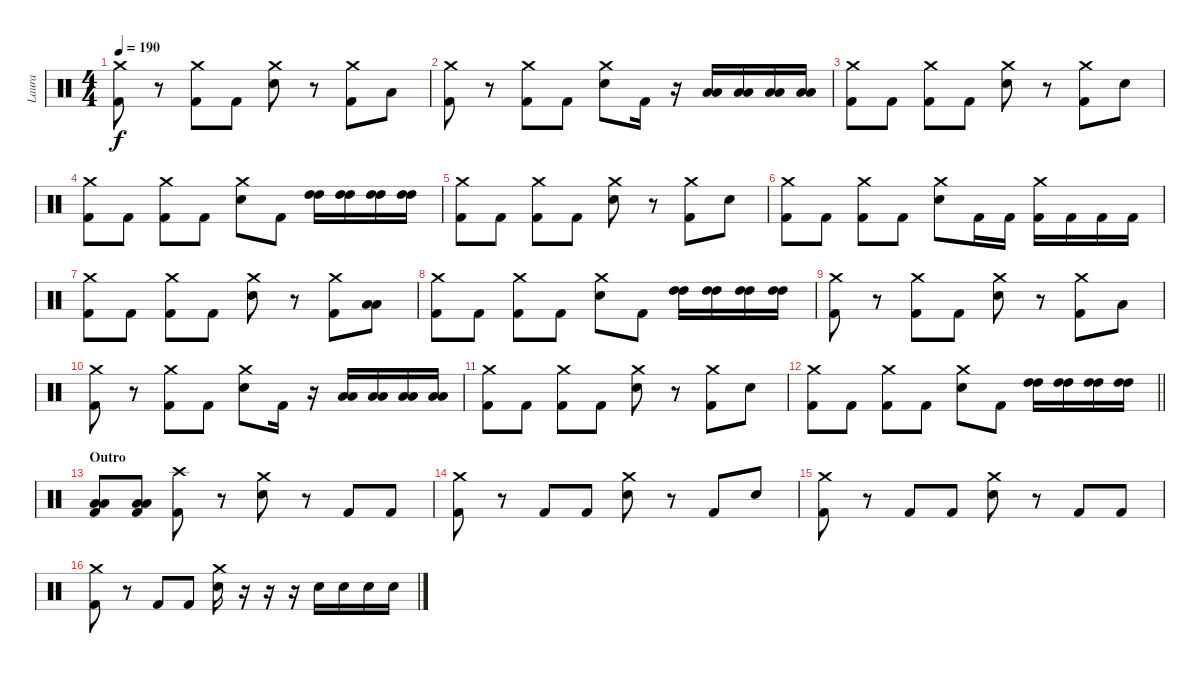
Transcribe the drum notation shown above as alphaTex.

\track ("Laura" "Laura") {instrument percussion}
\staff {score}
\articulation defaults
\ts (4 4)
\tempo 190
\clef neutral
\ks c
("Crash medium (hit)" "Kick (hit) 2").8{dy f} r.8 ("Crash medium (hit)" "Kick (hit) 2").8 "Kick (hit) 2".8 ("Crash medium (hit)" "Electric Snare (hit)").8 r.8 ("Crash medium (hit)" "Kick (hit) 2").8 "Low Tom (hit)".8 |
("Crash medium (hit)" "Kick (hit) 2").8 r.8 ("Crash medium (hit)" "Kick (hit) 2").8 "Kick (hit) 2".8 ("Crash medium (hit)" "Electric Snare (hit)").8 "Kick (hit) 2".16 r.16 ("Low Floor Tom (hit)" "Low Floor Tom (hit)").16 ("Low Floor Tom (hit)" "Low Floor Tom (hit)").16 ("Low Floor Tom (hit)" "Low Floor Tom (hit)").16 ("Low Floor Tom (hit)" "Low Floor Tom (hit)").16 |
("Crash medium (hit)" "Kick (hit) 2").8 "Kick (hit) 2".8 ("Crash medium (hit)" "Kick (hit) 2").8 "Kick (hit) 2".8 ("Crash medium (hit)" "Electric Snare (hit)").8 r.8 ("Crash medium (hit)" "Kick (hit) 2").8 "Electric Snare (hit)".8 |
("Crash medium (hit)" "Kick (hit) 2").8 "Kick (hit) 2".8 ("Crash medium (hit)" "Kick (hit) 2").8 "Kick (hit) 2".8 ("Crash medium (hit)" "Electric Snare (hit)").8 "Kick (hit) 2".8 ("High Tom (hit)" "High Tom (hit)").16 ("High Tom (hit)" "High Tom (hit)").16 ("High Tom (hit)" "High Tom (hit)").16 ("High Tom (hit)" "High Tom (hit)").16 |
("Crash medium (hit)" "Kick (hit) 2").8 "Kick (hit) 2".8 ("Crash medium (hit)" "Kick (hit) 2").8 "Kick (hit) 2".8 ("Crash medium (hit)" "Electric Snare (hit)").8 r.8 ("Crash medium (hit)" "Kick (hit) 2").8 "Electric Snare (hit)".8 |
("Crash medium (hit)" "Kick (hit) 2").8 "Kick (hit) 2".8 ("Crash medium (hit)" "Kick (hit) 2").8 "Kick (hit) 2".8 ("Crash medium (hit)" "Electric Snare (hit)").8 "Kick (hit) 2".16 "Kick (hit) 2".16 ("Crash medium (hit)" "Kick (hit) 2").16 "Kick (hit) 2".16 "Kick (hit) 2".16 "Kick (hit) 2".16 |
("Crash medium (hit)" "Kick (hit) 2").8 "Kick (hit) 2".8 ("Crash medium (hit)" "Kick (hit) 2").8 "Kick (hit) 2".8 ("Crash medium (hit)" "Electric Snare (hit)").8 r.8 ("Crash medium (hit)" "Kick (hit) 2").8 ("Low Tom (hit)" "Low Tom (hit)").8 |
("Crash medium (hit)" "Kick (hit) 2").8 "Kick (hit) 2".8 ("Crash medium (hit)" "Kick (hit) 2").8 "Kick (hit) 2".8 ("Crash medium (hit)" "Electric Snare (hit)").8 "Kick (hit) 2".8 ("High Tom (hit)" "High Tom (hit)").16 ("High Tom (hit)" "High Tom (hit)").16 ("High Tom (hit)" "High Tom (hit)").16 ("High Tom (hit)" "High Tom (hit)").16 |
("Crash medium (hit)" "Kick (hit) 2").8 r.8 ("Crash medium (hit)" "Kick (hit) 2").8 "Kick (hit) 2".8 ("Crash medium (hit)" "Electric Snare (hit)").8 r.8 ("Crash medium (hit)" "Kick (hit) 2").8 "Low Tom (hit)".8 |
("Crash medium (hit)" "Kick (hit) 2").8 r.8 ("Crash medium (hit)" "Kick (hit) 2").8 "Kick (hit) 2".8 ("Crash medium (hit)" "Electric Snare (hit)").8 "Kick (hit) 2".16 r.16 ("Low Floor Tom (hit)" "Low Floor Tom (hit)").16 ("Low Floor Tom (hit)" "Low Floor Tom (hit)").16 ("Low Floor Tom (hit)" "Low Floor Tom (hit)").16 ("Low Floor Tom (hit)" "Low Floor Tom (hit)").16 |
("Crash medium (hit)" "Kick (hit) 2").8 "Kick (hit) 2".8 ("Crash medium (hit)" "Kick (hit) 2").8 "Kick (hit) 2".8 ("Crash medium (hit)" "Electric Snare (hit)").8 r.8 ("Crash medium (hit)" "Kick (hit) 2").8 "Electric Snare (hit)".8 |
\barLineRight lightlight
("Crash medium (hit)" "Kick (hit) 2").8 "Kick (hit) 2".8 ("Crash medium (hit)" "Kick (hit) 2").8 "Kick (hit) 2".8 ("Crash medium (hit)" "Electric Snare (hit)").8 "Kick (hit) 2".8 ("High Tom (hit)" "High Tom (hit)").16 ("High Tom (hit)" "High Tom (hit)").16 ("High Tom (hit)" "High Tom (hit)").16 ("High Tom (hit)" "High Tom (hit)").16 |
\section ("" "Outro")
("Low Floor Tom (hit)" "Low Floor Tom (hit)" "Kick (hit) 2").8 ("Low Floor Tom (hit)" "Low Floor Tom (hit)" "Kick (hit) 2").8 ("Crash high (hit)" "Kick (hit) 2").8 r.8 ("Crash medium (hit)" "Electric Snare (hit)").8 r.8 "Kick (hit) 2".8 "Kick (hit) 2".8 |
("Crash medium (hit)" "Kick (hit) 2").8 r.8 "Kick (hit) 2".8 "Kick (hit) 2".8 ("Crash medium (hit)" "Electric Snare (hit)").8 r.8 "Kick (hit) 2".8 "Electric Snare (hit)".8 |
("Crash medium (hit)" "Kick (hit) 2").8 r.8 "Kick (hit) 2".8 "Kick (hit) 2".8 ("Crash medium (hit)" "Electric Snare (hit)").8 r.8 "Kick (hit) 2".8 "Kick (hit) 2".8 |
("Crash medium (hit)" "Kick (hit) 2").8 r.8 "Kick (hit) 2".8 "Kick (hit) 2".8 ("Crash medium (hit)" "Electric Snare (hit)").16 r.16 r.16 r.16 "Electric Snare (hit)".16 "Electric Snare (hit)".16 "Electric Snare (hit)".16 "Electric Snare (hit)".16
